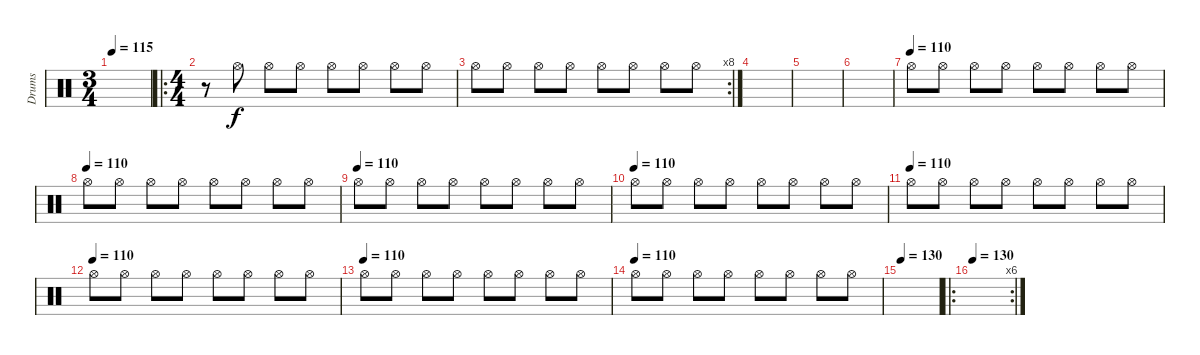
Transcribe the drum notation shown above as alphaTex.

\track ("Drums" "Drums") {instrument percussion}
\staff {score}
\articulation defaults
\ts (3 4)
\tempo 115
\clef neutral
\ks c
|
\ro
\ts (4 4)
r.8 "Hi-Hat (open)".8 "Hi-Hat (open)".8 "Hi-Hat (open)".8 "Hi-Hat (open)".8 "Hi-Hat (open)".8 "Hi-Hat (open)".8 "Hi-Hat (open)".8 |
\rc 8 "Hi-Hat (open)".8 "Hi-Hat (open)".8 "Hi-Hat (open)".8 "Hi-Hat (open)".8 "Hi-Hat (open)".8 "Hi-Hat (open)".8 "Hi-Hat (open)".8 "Hi-Hat (open)".8
|
|
|
|
\tempo 130
\tempo (110)
"Hi-Hat (open)".8 "Hi-Hat (open)".8 "Hi-Hat (open)".8 "Hi-Hat (open)".8 "Hi-Hat (open)".8 "Hi-Hat (open)".8 "Hi-Hat (open)".8 "Hi-Hat (open)".8 |
\tempo (110)
"Hi-Hat (open)".8 "Hi-Hat (open)".8 "Hi-Hat (open)".8 "Hi-Hat (open)".8 "Hi-Hat (open)".8 "Hi-Hat (open)".8 "Hi-Hat (open)".8 "Hi-Hat (open)".8 |
\tempo 130
\tempo (110)
"Hi-Hat (open)".8 "Hi-Hat (open)".8 "Hi-Hat (open)".8 "Hi-Hat (open)".8 "Hi-Hat (open)".8 "Hi-Hat (open)".8 "Hi-Hat (open)".8 "Hi-Hat (open)".8 |
\tempo (110)
"Hi-Hat (open)".8 "Hi-Hat (open)".8 "Hi-Hat (open)".8 "Hi-Hat (open)".8 "Hi-Hat (open)".8 "Hi-Hat (open)".8 "Hi-Hat (open)".8 "Hi-Hat (open)".8 |
\tempo 130
\tempo (110)
"Hi-Hat (open)".8 "Hi-Hat (open)".8 "Hi-Hat (open)".8 "Hi-Hat (open)".8 "Hi-Hat (open)".8 "Hi-Hat (open)".8 "Hi-Hat (open)".8 "Hi-Hat (open)".8 |
\tempo (110)
"Hi-Hat (open)".8 "Hi-Hat (open)".8 "Hi-Hat (open)".8 "Hi-Hat (open)".8 "Hi-Hat (open)".8 "Hi-Hat (open)".8 "Hi-Hat (open)".8 "Hi-Hat (open)".8 |
\tempo 130
\tempo (110)
"Hi-Hat (open)".8 "Hi-Hat (open)".8 "Hi-Hat (open)".8 "Hi-Hat (open)".8 "Hi-Hat (open)".8 "Hi-Hat (open)".8 "Hi-Hat (open)".8 "Hi-Hat (open)".8 |
\tempo (110)
"Hi-Hat (open)".8 "Hi-Hat (open)".8 "Hi-Hat (open)".8 "Hi-Hat (open)".8 "Hi-Hat (open)".8 "Hi-Hat (open)".8 "Hi-Hat (open)".8 "Hi-Hat (open)".8 |
\tempo 130
|
\ro
\rc 6
\tempo 130
